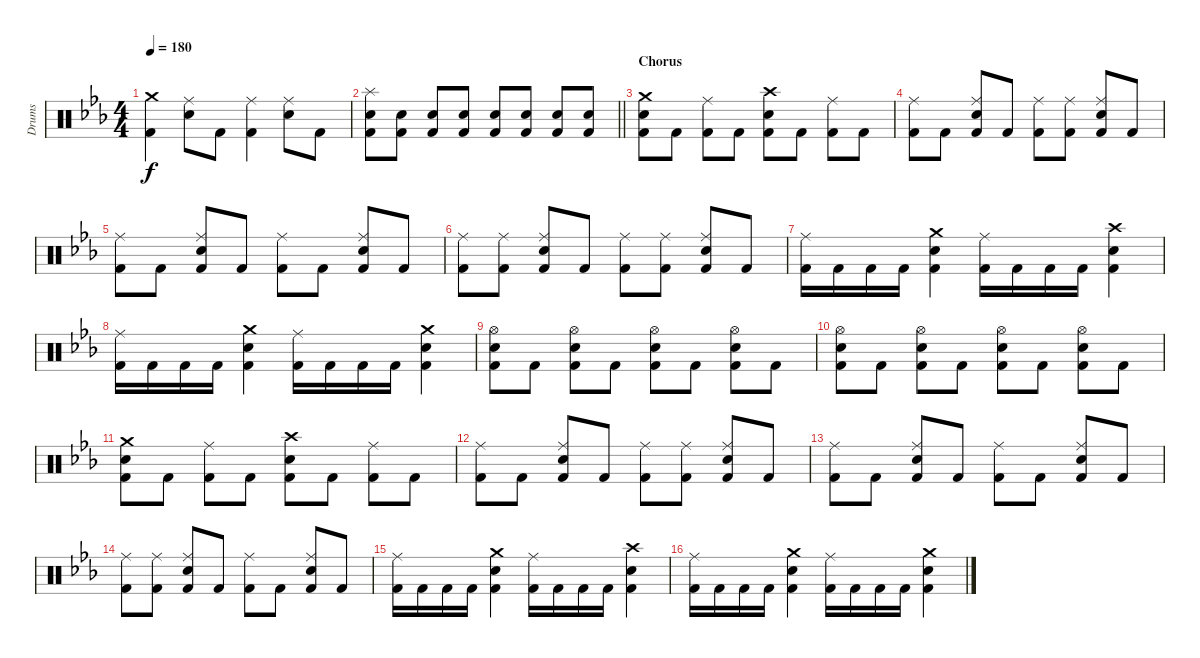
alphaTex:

\track ("Drums" "Drums") {instrument percussion}
\staff {score}
\articulation defaults
\ts (4 4)
\tempo 180
\clef neutral
\ks eb
("Crash medium (hit)" "Kick (hit) 2").4{dy f} ("Ride (middle)" "Snare (hit) 2").8 "Kick (hit) 2".8 ("Ride (middle)" "Kick (hit) 2").4 ("Ride (middle)" "Snare (hit) 2").8 "Kick (hit) 2".8 |
\barLineRight lightlight
("Splash (hit)" "Snare (hit) 2" "Kick (hit) 2").8 ("Snare (hit) 2" "Kick (hit) 2").8 ("Snare (hit) 2" "Kick (hit) 2").8 ("Snare (hit) 2" "Kick (hit) 2").8 ("Snare (hit) 2" "Kick (hit) 2").8 ("Snare (hit) 2" "Kick (hit) 2").8 ("Snare (hit) 2" "Kick (hit) 2").8 ("Snare (hit) 2" "Kick (hit) 2").8 |
\section ("" "Chorus")
("Crash medium (hit)" "Snare (hit) 2" "Kick (hit) 2").8 "Kick (hit) 2".8 ("Ride (middle)" "Kick (hit) 2").8 "Kick (hit) 2".8 ("Crash high (hit)" "Snare (hit) 2" "Kick (hit) 2").8 "Kick (hit) 2".8 ("Ride (middle)" "Kick (hit) 2").8 "Kick (hit) 2".8 |
("Ride (middle)" "Kick (hit) 2").8 "Kick (hit) 2".8 ("Ride (middle)" "Snare (hit) 2" "Kick (hit) 2").8 "Kick (hit) 2".8 ("Ride (middle)" "Kick (hit) 2").8 ("Ride (middle)" "Kick (hit) 2").8 ("Ride (middle)" "Snare (hit) 2" "Kick (hit) 2").8 "Kick (hit) 2".8 |
("Ride (middle)" "Kick (hit) 2").8 "Kick (hit) 2".8 ("Ride (middle)" "Snare (hit) 2" "Kick (hit) 2").8 "Kick (hit) 2".8 ("Ride (middle)" "Kick (hit) 2").8 "Kick (hit) 2".8 ("Ride (middle)" "Snare (hit) 2" "Kick (hit) 2").8 "Kick (hit) 2".8 |
("Ride (middle)" "Kick (hit) 2").8 ("Ride (middle)" "Kick (hit) 2").8 ("Ride (middle)" "Snare (hit) 2" "Kick (hit) 2").8 "Kick (hit) 2".8 ("Ride (middle)" "Kick (hit) 2").8 ("Ride (middle)" "Kick (hit) 2").8 ("Ride (middle)" "Snare (hit) 2" "Kick (hit) 2").8 "Kick (hit) 2".8 |
("Ride (middle)" "Kick (hit) 2").16 "Kick (hit) 2".16 "Kick (hit) 2".16 "Kick (hit) 2".16 ("Crash medium (hit)" "Snare (hit) 2" "Kick (hit) 2").4 ("Ride (middle)" "Kick (hit) 2").16 "Kick (hit) 2".16 "Kick (hit) 2".16 "Kick (hit) 2".16 ("Crash high (hit)" "Snare (hit) 2" "Kick (hit) 2").4 |
("Ride (middle)" "Kick (hit) 2").16 "Kick (hit) 2".16 "Kick (hit) 2".16 "Kick (hit) 2".16 ("Crash medium (hit)" "Snare (hit) 2" "Kick (hit) 2").4 ("Ride (middle)" "Kick (hit) 2").16 "Kick (hit) 2".16 "Kick (hit) 2".16 "Kick (hit) 2".16 ("Crash medium (hit)" "Snare (hit) 2" "Kick (hit) 2").4 |
("Hi-Hat (open)" "Snare (hit) 2" "Kick (hit) 2").8 "Kick (hit) 2".8 ("Hi-Hat (open)" "Snare (hit) 2" "Kick (hit) 2").8 "Kick (hit) 2".8 ("Hi-Hat (open)" "Snare (hit) 2" "Kick (hit) 2").8 "Kick (hit) 2".8 ("Hi-Hat (open)" "Snare (hit) 2" "Kick (hit) 2").8 "Kick (hit) 2".8 |
("Hi-Hat (open)" "Snare (hit) 2" "Kick (hit) 2").8 "Kick (hit) 2".8 ("Hi-Hat (open)" "Snare (hit) 2" "Kick (hit) 2").8 "Kick (hit) 2".8 ("Hi-Hat (open)" "Snare (hit) 2" "Kick (hit) 2").8 "Kick (hit) 2".8 ("Hi-Hat (open)" "Snare (hit) 2" "Kick (hit) 2").8 "Kick (hit) 2".8 |
("Crash medium (hit)" "Snare (hit) 2" "Kick (hit) 2").8 "Kick (hit) 2".8 ("Ride (middle)" "Kick (hit) 2").8 "Kick (hit) 2".8 ("Crash high (hit)" "Snare (hit) 2" "Kick (hit) 2").8 "Kick (hit) 2".8 ("Ride (middle)" "Kick (hit) 2").8 "Kick (hit) 2".8 |
("Ride (middle)" "Kick (hit) 2").8 "Kick (hit) 2".8 ("Ride (middle)" "Snare (hit) 2" "Kick (hit) 2").8 "Kick (hit) 2".8 ("Ride (middle)" "Kick (hit) 2").8 ("Ride (middle)" "Kick (hit) 2").8 ("Ride (middle)" "Snare (hit) 2" "Kick (hit) 2").8 "Kick (hit) 2".8 |
("Ride (middle)" "Kick (hit) 2").8 "Kick (hit) 2".8 ("Ride (middle)" "Snare (hit) 2" "Kick (hit) 2").8 "Kick (hit) 2".8 ("Ride (middle)" "Kick (hit) 2").8 "Kick (hit) 2".8 ("Ride (middle)" "Snare (hit) 2" "Kick (hit) 2").8 "Kick (hit) 2".8 |
("Ride (middle)" "Kick (hit) 2").8 ("Ride (middle)" "Kick (hit) 2").8 ("Ride (middle)" "Snare (hit) 2" "Kick (hit) 2").8 "Kick (hit) 2".8 ("Ride (middle)" "Kick (hit) 2").8 "Kick (hit) 2".8 ("Ride (middle)" "Snare (hit) 2" "Kick (hit) 2").8 "Kick (hit) 2".8 |
("Ride (middle)" "Kick (hit) 2").16 "Kick (hit) 2".16 "Kick (hit) 2".16 "Kick (hit) 2".16 ("Crash medium (hit)" "Snare (hit) 2" "Kick (hit) 2").4 ("Ride (middle)" "Kick (hit) 2").16 "Kick (hit) 2".16 "Kick (hit) 2".16 "Kick (hit) 2".16 ("Crash high (hit)" "Snare (hit) 2" "Kick (hit) 2").4 |
("Ride (middle)" "Kick (hit) 2").16 "Kick (hit) 2".16 "Kick (hit) 2".16 "Kick (hit) 2".16 ("Crash medium (hit)" "Snare (hit) 2" "Kick (hit) 2").4 ("Ride (middle)" "Kick (hit) 2").16 "Kick (hit) 2".16 "Kick (hit) 2".16 "Kick (hit) 2".16 ("Crash medium (hit)" "Snare (hit) 2" "Kick (hit) 2").4
